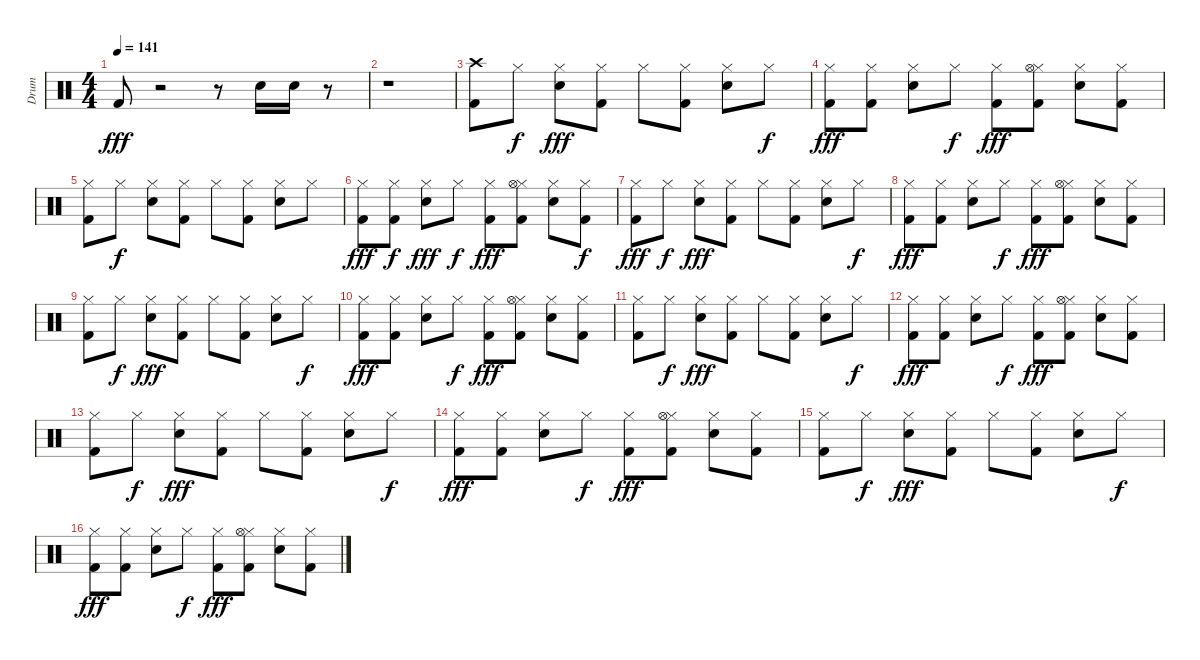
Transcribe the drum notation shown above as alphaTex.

\track ("Drum" "Drum") {instrument percussion}
\staff {score}
\articulation defaults
\ts (4 4)
\tempo 141
\clef neutral
\ks c "Kick (hit) 2".8{dy fff}
r.2 r.8 "Snare (hit) 2".16 "Snare (hit) 2".16 r.8 |
r.1 |
("Crash high (hit)" "Kick (hit) 2").8 "Hi-Hat (closed)".8{dy f} ("Hi-Hat (closed)" "Snare (hit) 2").8{dy fff} ("Hi-Hat (closed)" "Kick (hit) 2").8 "Hi-Hat (closed)".8 ("Hi-Hat (closed)" "Kick (hit) 2").8 ("Hi-Hat (closed)" "Snare (hit) 2").8 "Hi-Hat (closed)".8{dy f} |
("Hi-Hat (closed)" "Kick (hit) 2").8{dy fff} ("Hi-Hat (closed)" "Kick (hit) 2").8 ("Hi-Hat (closed)" "Snare (hit) 2").8 "Hi-Hat (closed)".8{dy f} ("Hi-Hat (closed)" "Kick (hit) 2").8{dy fff} ("Hi-Hat (closed)" "Kick (hit) 2" "Hi-Hat (open)").8 ("Hi-Hat (closed)" "Snare (hit) 2").8 ("Hi-Hat (closed)" "Kick (hit) 2").8 |
("Hi-Hat (closed)" "Kick (hit) 2").8 "Hi-Hat (closed)".8{dy f} ("Snare (hit) 2" "Hi-Hat (closed)").8 ("Kick (hit) 2" "Hi-Hat (closed)").8 "Hi-Hat (closed)".8 ("Kick (hit) 2" "Hi-Hat (closed)").8 ("Snare (hit) 2" "Hi-Hat (closed)").8 "Hi-Hat (closed)".8 |
("Hi-Hat (closed)" "Kick (hit) 2").8{dy fff} ("Hi-Hat (closed)" "Kick (hit) 2").8{dy f} ("Hi-Hat (closed)" "Snare (hit) 2").8{dy fff} "Hi-Hat (closed)".8{dy f} ("Kick (hit) 2" "Hi-Hat (closed)").8{dy fff} ("Hi-Hat (closed)" "Hi-Hat (open)" "Kick (hit) 2").8 ("Hi-Hat (closed)" "Snare (hit) 2").8 ("Hi-Hat (closed)" "Kick (hit) 2").8{dy f} |
("Hi-Hat (closed)" "Kick (hit) 2").8{dy fff} "Hi-Hat (closed)".8{dy f} ("Hi-Hat (closed)" "Snare (hit) 2").8{dy fff} ("Hi-Hat (closed)" "Kick (hit) 2").8 "Hi-Hat (closed)".8 ("Hi-Hat (closed)" "Kick (hit) 2").8 ("Hi-Hat (closed)" "Snare (hit) 2").8 "Hi-Hat (closed)".8{dy f} |
("Hi-Hat (closed)" "Kick (hit) 2").8{dy fff} ("Hi-Hat (closed)" "Kick (hit) 2").8 ("Hi-Hat (closed)" "Snare (hit) 2").8 "Hi-Hat (closed)".8{dy f} ("Hi-Hat (closed)" "Kick (hit) 2").8{dy fff} ("Hi-Hat (closed)" "Kick (hit) 2" "Hi-Hat (open)").8 ("Hi-Hat (closed)" "Snare (hit) 2").8 ("Hi-Hat (closed)" "Kick (hit) 2").8 |
("Hi-Hat (closed)" "Kick (hit) 2").8 "Hi-Hat (closed)".8{dy f} ("Hi-Hat (closed)" "Snare (hit) 2").8{dy fff} ("Hi-Hat (closed)" "Kick (hit) 2").8 "Hi-Hat (closed)".8 ("Hi-Hat (closed)" "Kick (hit) 2").8 ("Hi-Hat (closed)" "Snare (hit) 2").8 "Hi-Hat (closed)".8{dy f} |
("Hi-Hat (closed)" "Kick (hit) 2").8{dy fff} ("Hi-Hat (closed)" "Kick (hit) 2").8 ("Hi-Hat (closed)" "Snare (hit) 2").8 "Hi-Hat (closed)".8{dy f} ("Hi-Hat (closed)" "Kick (hit) 2").8{dy fff} ("Hi-Hat (closed)" "Kick (hit) 2" "Hi-Hat (open)").8 ("Hi-Hat (closed)" "Snare (hit) 2").8 ("Hi-Hat (closed)" "Kick (hit) 2").8 |
("Hi-Hat (closed)" "Kick (hit) 2").8 "Hi-Hat (closed)".8{dy f} ("Hi-Hat (closed)" "Snare (hit) 2").8{dy fff} ("Hi-Hat (closed)" "Kick (hit) 2").8 "Hi-Hat (closed)".8 ("Hi-Hat (closed)" "Kick (hit) 2").8 ("Hi-Hat (closed)" "Snare (hit) 2").8 "Hi-Hat (closed)".8{dy f} |
("Hi-Hat (closed)" "Kick (hit) 2").8{dy fff} ("Hi-Hat (closed)" "Kick (hit) 2").8 ("Hi-Hat (closed)" "Snare (hit) 2").8 "Hi-Hat (closed)".8{dy f} ("Hi-Hat (closed)" "Kick (hit) 2").8{dy fff} ("Hi-Hat (closed)" "Kick (hit) 2" "Hi-Hat (open)").8 ("Hi-Hat (closed)" "Snare (hit) 2").8 ("Hi-Hat (closed)" "Kick (hit) 2").8 |
("Hi-Hat (closed)" "Kick (hit) 2").8 "Hi-Hat (closed)".8{dy f} ("Hi-Hat (closed)" "Snare (hit) 2").8{dy fff} ("Hi-Hat (closed)" "Kick (hit) 2").8 "Hi-Hat (closed)".8 ("Hi-Hat (closed)" "Kick (hit) 2").8 ("Hi-Hat (closed)" "Snare (hit) 2").8 "Hi-Hat (closed)".8{dy f} |
("Hi-Hat (closed)" "Kick (hit) 2").8{dy fff} ("Hi-Hat (closed)" "Kick (hit) 2").8 ("Hi-Hat (closed)" "Snare (hit) 2").8 "Hi-Hat (closed)".8{dy f} ("Hi-Hat (closed)" "Kick (hit) 2").8{dy fff} ("Hi-Hat (closed)" "Kick (hit) 2" "Hi-Hat (open)").8 ("Hi-Hat (closed)" "Snare (hit) 2").8 ("Hi-Hat (closed)" "Kick (hit) 2").8 |
("Hi-Hat (closed)" "Kick (hit) 2").8 "Hi-Hat (closed)".8{dy f} ("Hi-Hat (closed)" "Snare (hit) 2").8{dy fff} ("Hi-Hat (closed)" "Kick (hit) 2").8 "Hi-Hat (closed)".8 ("Hi-Hat (closed)" "Kick (hit) 2").8 ("Hi-Hat (closed)" "Snare (hit) 2").8 "Hi-Hat (closed)".8{dy f} |
("Hi-Hat (closed)" "Kick (hit) 2").8{dy fff} ("Hi-Hat (closed)" "Kick (hit) 2").8 ("Hi-Hat (closed)" "Snare (hit) 2").8 "Hi-Hat (closed)".8{dy f} ("Hi-Hat (closed)" "Kick (hit) 2").8{dy fff} ("Hi-Hat (closed)" "Kick (hit) 2" "Hi-Hat (open)").8 ("Hi-Hat (closed)" "Snare (hit) 2").8 ("Hi-Hat (closed)" "Kick (hit) 2").8
